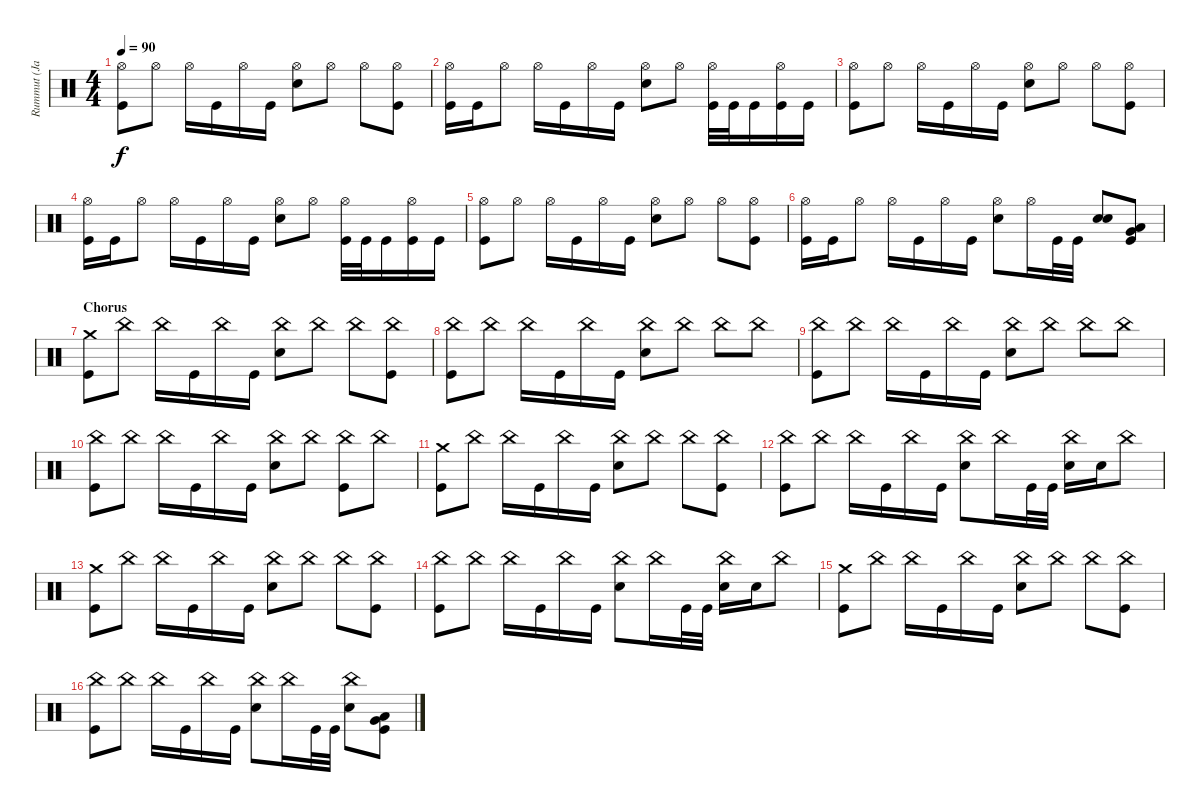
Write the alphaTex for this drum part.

\track ("Rummut (Janne)" "Rummut (Ja") {instrument percussion}
\staff {score}
\articulation defaults
\ts (4 4)
\tempo 90
\clef neutral
\ks c
("Hi-Hat (open)" "Kick (hit)").8{dy f} "Hi-Hat (open)".8 "Hi-Hat (open)".16 "Kick (hit)".16 "Hi-Hat (open)".16 "Kick (hit)".16 ("Hi-Hat (open)" "Snare (hit) 2").8 "Hi-Hat (open)".8 "Hi-Hat (open)".8 ("Hi-Hat (open)" "Kick (hit)").8 |
("Hi-Hat (open)" "Kick (hit)").16 "Kick (hit)".16 "Hi-Hat (open)".8 "Hi-Hat (open)".16 "Kick (hit)".16 "Hi-Hat (open)".16 "Kick (hit)".16 ("Hi-Hat (open)" "Snare (hit) 2").8 "Hi-Hat (open)".8 ("Hi-Hat (open)" "Kick (hit)").32 "Kick (hit)".32 "Kick (hit)".16 ("Hi-Hat (open)" "Kick (hit)").16 "Kick (hit)".16 |
("Hi-Hat (open)" "Kick (hit)").8 "Hi-Hat (open)".8 "Hi-Hat (open)".16 "Kick (hit)".16 "Hi-Hat (open)".16 "Kick (hit)".16 ("Hi-Hat (open)" "Snare (hit) 2").8 "Hi-Hat (open)".8 "Hi-Hat (open)".8 ("Hi-Hat (open)" "Kick (hit)").8 |
("Hi-Hat (open)" "Kick (hit)").16 "Kick (hit)".16 "Hi-Hat (open)".8 "Hi-Hat (open)".16 "Kick (hit)".16 "Hi-Hat (open)".16 "Kick (hit)".16 ("Hi-Hat (open)" "Snare (hit) 2").8 "Hi-Hat (open)".8 ("Hi-Hat (open)" "Kick (hit)").32 "Kick (hit)".32 "Kick (hit)".16 ("Hi-Hat (open)" "Kick (hit)").16 "Kick (hit)".16 |
("Hi-Hat (open)" "Kick (hit)").8 "Hi-Hat (open)".8 "Hi-Hat (open)".16 "Kick (hit)".16 "Hi-Hat (open)".16 "Kick (hit)".16 ("Hi-Hat (open)" "Snare (hit) 2").8 "Hi-Hat (open)".8 "Hi-Hat (open)".8 ("Hi-Hat (open)" "Kick (hit)").8 |
("Hi-Hat (open)" "Kick (hit)").16 "Kick (hit)".16 "Hi-Hat (open)".8 "Hi-Hat (open)".16 "Kick (hit)".16 "Hi-Hat (open)".16 "Kick (hit)".16 ("Hi-Hat (open)" "Snare (hit) 2").8 "Hi-Hat (open)".16 "Kick (hit)".32 "Kick (hit)".32 ("Snare (hit) 2" "Snare (hit) 2").8 ("Low Tom (hit)" "Very Low Tom (hit)" "Kick (hit)").8 |
\section ("" "Chorus")
("Crash medium (hit)" "Kick (hit)").8 "China (hit)".8 "China (hit)".16 "Kick (hit)".16 "China (hit)".16 "Kick (hit)".16 ("China (hit)" "Snare (hit) 2").8 "China (hit)".8 "China (hit)".8 ("China (hit)" "Kick (hit)").8 |
("China (hit)" "Kick (hit)").8 "China (hit)".8 "China (hit)".16 "Kick (hit)".16 "China (hit)".16 "Kick (hit)".16 ("China (hit)" "Snare (hit) 2").8 "China (hit)".8 "China (hit)".8 "China (hit)".8 |
("China (hit)" "Kick (hit)").8 "China (hit)".8 "China (hit)".16 "Kick (hit)".16 "China (hit)".16 "Kick (hit)".16 ("China (hit)" "Snare (hit) 2").8 "China (hit)".8 "China (hit)".8 "China (hit)".8 |
("China (hit)" "Kick (hit)").8 "China (hit)".8 "China (hit)".16 "Kick (hit)".16 "China (hit)".16 "Kick (hit)".16 ("China (hit)" "Snare (hit) 2").8 "China (hit)".8 ("China (hit)" "Kick (hit)").8 "China (hit)".8 |
("Crash medium (hit)" "Kick (hit)").8 "China (hit)".8 "China (hit)".16 "Kick (hit)".16 "China (hit)".16 "Kick (hit)".16 ("China (hit)" "Snare (hit) 2").8 "China (hit)".8 "China (hit)".8 ("China (hit)" "Kick (hit)").8 |
("China (hit)" "Kick (hit)").8 "China (hit)".8 "China (hit)".16 "Kick (hit)".16 "China (hit)".16 "Kick (hit)".16 ("China (hit)" "Snare (hit) 2").8 "China (hit)".16 "Kick (hit)".32 "Kick (hit)".32 ("China (hit)" "Snare (hit) 2").16 "Snare (hit) 2".16 "China (hit)".8 |
("Crash medium (hit)" "Kick (hit)").8 "China (hit)".8 "China (hit)".16 "Kick (hit)".16 "China (hit)".16 "Kick (hit)".16 ("China (hit)" "Snare (hit) 2").8 "China (hit)".8 "China (hit)".8 ("China (hit)" "Kick (hit)").8 |
("China (hit)" "Kick (hit)").8 "China (hit)".8 "China (hit)".16 "Kick (hit)".16 "China (hit)".16 "Kick (hit)".16 ("China (hit)" "Snare (hit) 2").8 "China (hit)".16 "Kick (hit)".32 "Kick (hit)".32 ("China (hit)" "Snare (hit) 2").16 "Snare (hit) 2".16 "China (hit)".8 |
("Crash medium (hit)" "Kick (hit)").8 "China (hit)".8 "China (hit)".16 "Kick (hit)".16 "China (hit)".16 "Kick (hit)".16 ("China (hit)" "Snare (hit) 2").8 "China (hit)".8 "China (hit)".8 ("China (hit)" "Kick (hit)").8 |
("China (hit)" "Kick (hit)").8 "China (hit)".8 "China (hit)".16 "Kick (hit)".16 "China (hit)".16 "Kick (hit)".16 ("China (hit)" "Snare (hit) 2").8 "China (hit)".16 "Kick (hit)".32 "Kick (hit)".32 ("China (hit)" "Snare (hit) 2").8 ("Low Tom (hit)" "Very Low Tom (hit)" "Kick (hit)").8
